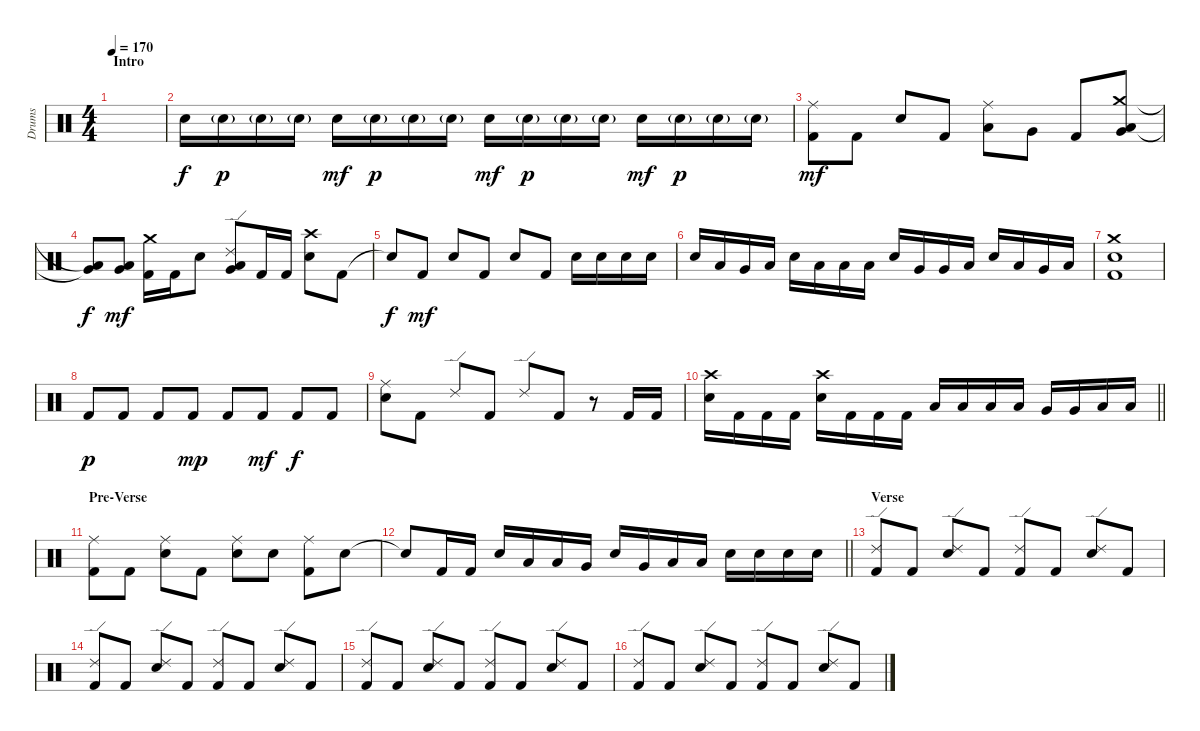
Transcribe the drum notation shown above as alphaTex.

\track ("Drums" "Drums") {instrument percussion}
\staff {score}
\articulation defaults
\ts (4 4)
\section ("" "Intro")
\tempo 170
\clef neutral
\ks c
|
"Electric Snare (hit)".16 "Electric Snare (hit)"{g}.16{dy p} "Electric Snare (hit)"{g}.16 "Electric Snare (hit)"{g}.16 "Electric Snare (hit)".16{dy mf} "Electric Snare (hit)"{g}.16{dy p} "Electric Snare (hit)"{g}.16 "Electric Snare (hit)"{g}.16 "Electric Snare (hit)".16{dy mf} "Electric Snare (hit)"{g}.16{dy p} "Electric Snare (hit)"{g}.16 "Electric Snare (hit)"{g}.16 "Electric Snare (hit)".16{dy mf} "Electric Snare (hit)"{g}.16{dy p} "Electric Snare (hit)"{g}.16 "Electric Snare (hit)"{g}.16 |
("Ride (middle)" "Kick (hit) 2").8{dy mf} "Kick (hit) 2".8 "Electric Snare (hit)".8 "Kick (hit) 2".8 ("Ride (middle)" "Low Tom (hit)").8 "Very Low Tom (hit)".8 "Kick (hit) 2".8 ("Crash medium (hit)" "Low Floor Tom (hit)" "Very Low Tom (hit)").8 |
("Low Floor Tom (hit)"{t} "Very Low Tom (hit)"{t}).8{dy f} ("Low Floor Tom (hit)" "Very Low Tom (hit)").8{dy mf} ("Crash medium (hit)" "Kick (hit) 2").16 "Kick (hit) 2".16 "Electric Snare (hit)".8 ("Ride (edge) 2" "Low Tom (hit)" "Very Low Tom (hit)").8 "Kick (hit) 2".16 "Kick (hit) 2".16 ("Crash high (hit)" "Electric Snare (hit)").8 "Kick (hit) 2".8 |
"Snare (hit)"{t}.8{dy f} "Kick (hit) 2".8{dy mf} "Electric Snare (hit)".8 "Kick (hit) 2".8 "Electric Snare (hit)".8 "Kick (hit) 2".8 "Electric Snare (hit)".16 "Electric Snare (hit)".16 "Electric Snare (hit)".16 "Electric Snare (hit)".16 |
"Electric Snare (hit)".16 "Low Tom (hit)".16 "Very Low Tom (hit)".16 "Low Floor Tom (hit)".16 "Electric Snare (hit)".16 "Low Tom (hit)".16 "Low Tom (hit)".16 "Low Tom (hit)".16 "Electric Snare (hit)".16 "Very Low Tom (hit)".16 "Very Low Tom (hit)".16 "Low Floor Tom (hit)".16 "Electric Snare (hit)".16 "Low Tom (hit)".16 "Very Low Tom (hit)".16 "Low Floor Tom (hit)".16 |
("Crash medium (hit)" "Electric Snare (hit)" "Kick (hit) 2").1 |
"Kick (hit) 2".8{dy p} "Kick (hit) 2".8 "Kick (hit) 2".8 "Kick (hit) 2".8{dy mp} "Kick (hit) 2".8 "Kick (hit) 2".8{dy mf} "Kick (hit) 2".8{dy f} "Kick (hit) 2".8 |
("Ride (middle)" "Electric Snare (hit)").8 "Kick (hit) 2".8 "Ride (edge) 2".8 "Kick (hit) 2".8 "Ride (edge) 2".8 "Kick (hit) 2".8 r.8 "Kick (hit) 2".16 "Kick (hit) 2".16 |
\barLineRight lightlight
("Crash high (hit)" "Electric Snare (hit)").16 "Kick (hit) 2".16 "Kick (hit) 2".16 "Kick (hit) 2".16 ("Crash high (hit)" "Electric Snare (hit)").16 "Kick (hit) 2".16 "Kick (hit) 2".16 "Kick (hit) 2".16 "Low Tom (hit)".16 "Low Tom (hit)".16 "Low Tom (hit)".16 "Low Tom (hit)".16 "Very Low Tom (hit)".16 "Very Low Tom (hit)".16 "Low Floor Tom (hit)".16 "Low Floor Tom (hit)".16 |
\section ("" "Pre-Verse")
("Ride (middle)" "Kick (hit) 2").8 "Kick (hit) 2".8 ("Ride (middle)" "Electric Snare (hit)").8 "Kick (hit) 2".8 ("Ride (middle)" "Electric Snare (hit)").8 "Electric Snare (hit)".8 ("Ride (middle)" "Kick (hit) 2").8 "Electric Snare (hit)".8 |
\barLineRight lightlight "Snare (hit)"{t}.8 "Kick (hit) 2".16 "Kick (hit) 2".16 "Electric Snare (hit)".16 "Low Tom (hit)".16 "Low Tom (hit)".16 "Very Low Tom (hit)".16 "Electric Snare (hit)".16 "Very Low Tom (hit)".16 "Low Floor Tom (hit)".16 "Low Floor Tom (hit)".16 "Electric Snare (hit)".16 "Electric Snare (hit)".16 "Electric Snare (hit)".16 "Electric Snare (hit)".16
|
\section ("" "Verse")
("Ride (edge) 2" "Kick (hit) 2").8 "Kick (hit) 2".8 ("Ride (edge) 2" "Electric Snare (hit)").8 "Kick (hit) 2".8 ("Ride (edge) 2" "Kick (hit) 2").8 "Kick (hit) 2".8 ("Ride (edge) 2" "Electric Snare (hit)").8 "Kick (hit) 2".8 |
("Ride (edge) 2" "Kick (hit) 2").8 "Kick (hit) 2".8 ("Ride (edge) 2" "Electric Snare (hit)").8 "Kick (hit) 2".8 ("Ride (edge) 2" "Kick (hit) 2").8 "Kick (hit) 2".8 ("Ride (edge) 2" "Electric Snare (hit)").8 "Kick (hit) 2".8 |
("Ride (edge) 2" "Kick (hit) 2").8 "Kick (hit) 2".8 ("Ride (edge) 2" "Electric Snare (hit)").8 "Kick (hit) 2".8 ("Ride (edge) 2" "Kick (hit) 2").8 "Kick (hit) 2".8 ("Ride (edge) 2" "Electric Snare (hit)").8 "Kick (hit) 2".8 |
("Ride (edge) 2" "Kick (hit) 2").8 "Kick (hit) 2".8 ("Ride (edge) 2" "Electric Snare (hit)").8 "Kick (hit) 2".8 ("Ride (edge) 2" "Kick (hit) 2").8 "Kick (hit) 2".8 ("Ride (edge) 2" "Electric Snare (hit)").8 "Kick (hit) 2".8
